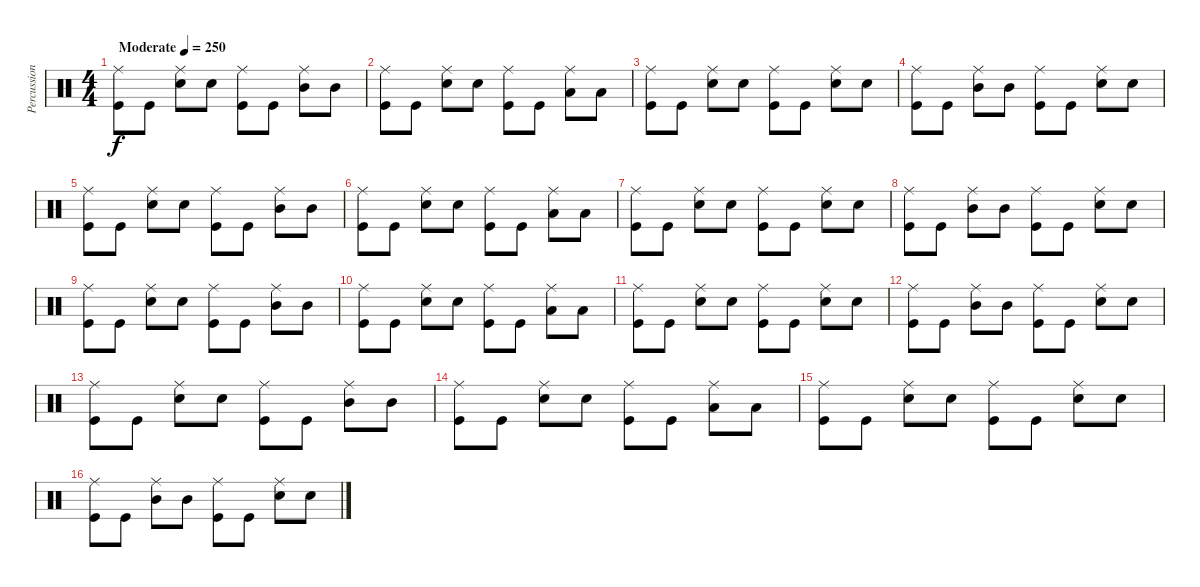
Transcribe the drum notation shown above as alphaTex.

\track ("Percussion" "Percussion") {instrument percussion}
\staff {score}
\articulation defaults
\ts (4 4)
\tempo (250 "Moderate")
\clef neutral
\ks c
("Ride (middle)" "Kick (hit)").8{dy f} "Kick (hit)".8 ("Ride (middle)" "Snare (hit) 2").8 "Snare (hit) 2".8 ("Ride (middle)" "Kick (hit)").8 "Kick (hit)".8 ("Ride (middle)" "Mid Tom (hit)").8 "Mid Tom (hit)".8 |
("Ride (middle)" "Kick (hit)").8 "Kick (hit)".8 ("Ride (middle)" "Snare (hit) 2").8 "Snare (hit) 2".8 ("Ride (middle)" "Kick (hit)").8 "Kick (hit)".8 ("Ride (middle)" "Low Tom (hit)").8 "Low Tom (hit)".8 |
("Ride (middle)" "Kick (hit)").8 "Kick (hit)".8 ("Ride (middle)" "Snare (hit) 2").8 "Snare (hit) 2".8 ("Ride (middle)" "Kick (hit)").8 "Kick (hit)".8 ("Ride (middle)" "Snare (hit) 2").8 "Snare (hit) 2".8 |
("Ride (middle)" "Kick (hit)").8 "Kick (hit)".8 ("Ride (middle)" "Mid Tom (hit)").8 "Mid Tom (hit)".8 ("Ride (middle)" "Kick (hit)").8 "Kick (hit)".8 ("Ride (middle)" "Snare (hit) 2").8 "Snare (hit) 2".8 |
("Ride (middle)" "Kick (hit)").8 "Kick (hit)".8 ("Ride (middle)" "Snare (hit) 2").8 "Snare (hit) 2".8 ("Ride (middle)" "Kick (hit)").8 "Kick (hit)".8 ("Ride (middle)" "Mid Tom (hit)").8 "Mid Tom (hit)".8 |
("Ride (middle)" "Kick (hit)").8 "Kick (hit)".8 ("Ride (middle)" "Snare (hit) 2").8 "Snare (hit) 2".8 ("Ride (middle)" "Kick (hit)").8 "Kick (hit)".8 ("Ride (middle)" "Low Tom (hit)").8 "Low Tom (hit)".8 |
("Ride (middle)" "Kick (hit)").8 "Kick (hit)".8 ("Ride (middle)" "Snare (hit) 2").8 "Snare (hit) 2".8 ("Ride (middle)" "Kick (hit)").8 "Kick (hit)".8 ("Ride (middle)" "Snare (hit) 2").8 "Snare (hit) 2".8 |
("Ride (middle)" "Kick (hit)").8 "Kick (hit)".8 ("Ride (middle)" "Mid Tom (hit)").8 "Mid Tom (hit)".8 ("Ride (middle)" "Kick (hit)").8 "Kick (hit)".8 ("Ride (middle)" "Snare (hit) 2").8 "Snare (hit) 2".8 |
("Ride (middle)" "Kick (hit)").8 "Kick (hit)".8 ("Ride (middle)" "Snare (hit) 2").8 "Snare (hit) 2".8 ("Ride (middle)" "Kick (hit)").8 "Kick (hit)".8 ("Ride (middle)" "Mid Tom (hit)").8 "Mid Tom (hit)".8 |
("Ride (middle)" "Kick (hit)").8 "Kick (hit)".8 ("Ride (middle)" "Snare (hit) 2").8 "Snare (hit) 2".8 ("Ride (middle)" "Kick (hit)").8 "Kick (hit)".8 ("Ride (middle)" "Low Tom (hit)").8 "Low Tom (hit)".8 |
("Ride (middle)" "Kick (hit)").8 "Kick (hit)".8 ("Ride (middle)" "Snare (hit) 2").8 "Snare (hit) 2".8 ("Ride (middle)" "Kick (hit)").8 "Kick (hit)".8 ("Ride (middle)" "Snare (hit) 2").8 "Snare (hit) 2".8 |
("Ride (middle)" "Kick (hit)").8 "Kick (hit)".8 ("Ride (middle)" "Mid Tom (hit)").8 "Mid Tom (hit)".8 ("Ride (middle)" "Kick (hit)").8 "Kick (hit)".8 ("Ride (middle)" "Snare (hit) 2").8 "Snare (hit) 2".8 |
("Ride (middle)" "Kick (hit)").8 "Kick (hit)".8 ("Ride (middle)" "Snare (hit) 2").8 "Snare (hit) 2".8 ("Ride (middle)" "Kick (hit)").8 "Kick (hit)".8 ("Ride (middle)" "Mid Tom (hit)").8 "Mid Tom (hit)".8 |
("Ride (middle)" "Kick (hit)").8 "Kick (hit)".8 ("Ride (middle)" "Snare (hit) 2").8 "Snare (hit) 2".8 ("Ride (middle)" "Kick (hit)").8 "Kick (hit)".8 ("Ride (middle)" "Low Tom (hit)").8 "Low Tom (hit)".8 |
("Ride (middle)" "Kick (hit)").8 "Kick (hit)".8 ("Ride (middle)" "Snare (hit) 2").8 "Snare (hit) 2".8 ("Ride (middle)" "Kick (hit)").8 "Kick (hit)".8 ("Ride (middle)" "Snare (hit) 2").8 "Snare (hit) 2".8 |
("Ride (middle)" "Kick (hit)").8 "Kick (hit)".8 ("Ride (middle)" "Mid Tom (hit)").8 "Mid Tom (hit)".8 ("Ride (middle)" "Kick (hit)").8 "Kick (hit)".8 ("Ride (middle)" "Snare (hit) 2").8 "Snare (hit) 2".8
